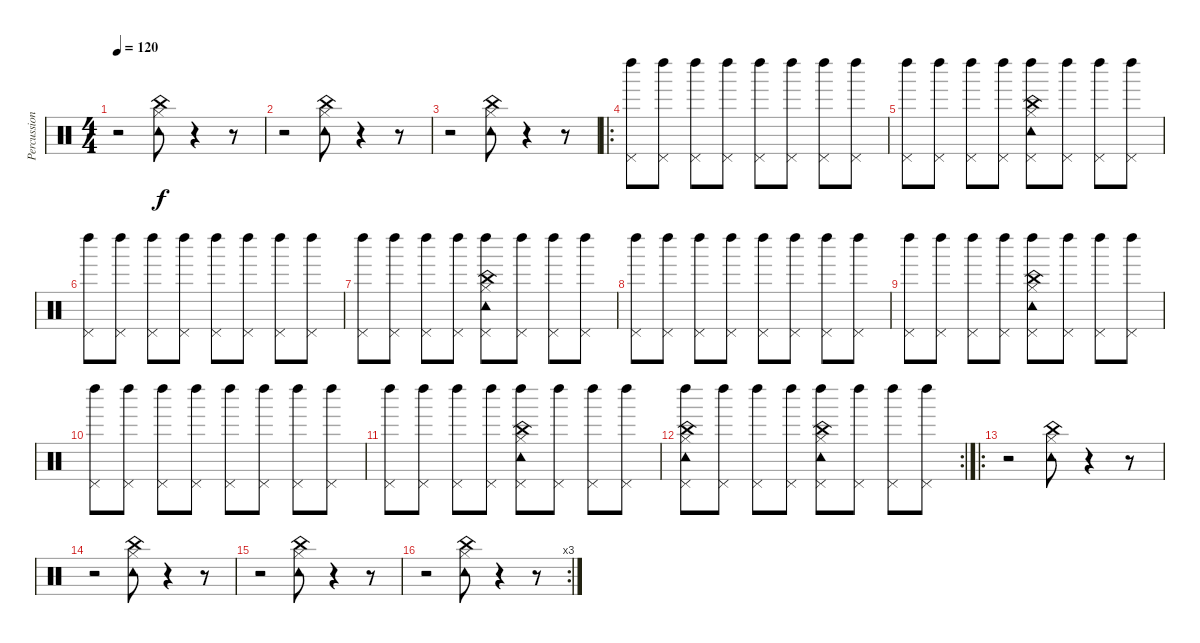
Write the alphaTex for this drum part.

\track ("Percussion " "Percussion") {instrument percussion}
\staff {score}
\articulation defaults
\ts (4 4)
\tempo 120
\clef neutral
\ks c
r.2{dy f} ("Tambourine (hit)" "China (hit)" "Hi-Hat (closed)").8 r.4 r.8 |
r.2 ("Tambourine (hit)" "China (hit)" "Hi-Hat (closed)").8 r.4 r.8 |
r.2 ("Tambourine (hit)" "China (hit)" "Hi-Hat (closed)").8 r.4 r.8 |
\ro
("Left Maraca (hit)" "Pedal Hi-Hat (hit)").8 ("Left Maraca (hit)" "Pedal Hi-Hat (hit)").8 ("Left Maraca (hit)" "Pedal Hi-Hat (hit)").8 ("Left Maraca (hit)" "Pedal Hi-Hat (hit)").8 ("Left Maraca (hit)" "Pedal Hi-Hat (hit)").8 ("Left Maraca (hit)" "Pedal Hi-Hat (hit)").8 ("Left Maraca (hit)" "Pedal Hi-Hat (hit)").8 ("Left Maraca (hit)" "Pedal Hi-Hat (hit)").8 |
("Left Maraca (hit)" "Pedal Hi-Hat (hit)").8 ("Left Maraca (hit)" "Pedal Hi-Hat (hit)").8 ("Left Maraca (hit)" "Pedal Hi-Hat (hit)").8 ("Left Maraca (hit)" "Pedal Hi-Hat (hit)").8 ("Left Maraca (hit)" "Pedal Hi-Hat (hit)" "Tambourine (hit)" "China (hit)" "Hi-Hat (closed)").8 ("Left Maraca (hit)" "Pedal Hi-Hat (hit)").8 ("Left Maraca (hit)" "Pedal Hi-Hat (hit)").8 ("Left Maraca (hit)" "Pedal Hi-Hat (hit)").8 |
("Left Maraca (hit)" "Pedal Hi-Hat (hit)").8 ("Left Maraca (hit)" "Pedal Hi-Hat (hit)").8 ("Left Maraca (hit)" "Pedal Hi-Hat (hit)").8 ("Left Maraca (hit)" "Pedal Hi-Hat (hit)").8 ("Left Maraca (hit)" "Pedal Hi-Hat (hit)").8 ("Left Maraca (hit)" "Pedal Hi-Hat (hit)").8 ("Left Maraca (hit)" "Pedal Hi-Hat (hit)").8 ("Left Maraca (hit)" "Pedal Hi-Hat (hit)").8 |
("Left Maraca (hit)" "Pedal Hi-Hat (hit)").8 ("Left Maraca (hit)" "Pedal Hi-Hat (hit)").8 ("Left Maraca (hit)" "Pedal Hi-Hat (hit)").8 ("Left Maraca (hit)" "Pedal Hi-Hat (hit)").8 ("Left Maraca (hit)" "Pedal Hi-Hat (hit)" "Tambourine (hit)" "China (hit)" "Hi-Hat (closed)").8 ("Left Maraca (hit)" "Pedal Hi-Hat (hit)").8 ("Left Maraca (hit)" "Pedal Hi-Hat (hit)").8 ("Left Maraca (hit)" "Pedal Hi-Hat (hit)").8 |
("Left Maraca (hit)" "Pedal Hi-Hat (hit)").8 ("Left Maraca (hit)" "Pedal Hi-Hat (hit)").8 ("Left Maraca (hit)" "Pedal Hi-Hat (hit)").8 ("Left Maraca (hit)" "Pedal Hi-Hat (hit)").8 ("Left Maraca (hit)" "Pedal Hi-Hat (hit)").8 ("Left Maraca (hit)" "Pedal Hi-Hat (hit)").8 ("Left Maraca (hit)" "Pedal Hi-Hat (hit)").8 ("Left Maraca (hit)" "Pedal Hi-Hat (hit)").8 |
("Left Maraca (hit)" "Pedal Hi-Hat (hit)").8 ("Left Maraca (hit)" "Pedal Hi-Hat (hit)").8 ("Left Maraca (hit)" "Pedal Hi-Hat (hit)").8 ("Left Maraca (hit)" "Pedal Hi-Hat (hit)").8 ("Left Maraca (hit)" "Pedal Hi-Hat (hit)" "Tambourine (hit)" "China (hit)" "Hi-Hat (closed)").8 ("Left Maraca (hit)" "Pedal Hi-Hat (hit)").8 ("Left Maraca (hit)" "Pedal Hi-Hat (hit)").8 ("Left Maraca (hit)" "Pedal Hi-Hat (hit)").8 |
("Left Maraca (hit)" "Pedal Hi-Hat (hit)").8 ("Left Maraca (hit)" "Pedal Hi-Hat (hit)").8 ("Left Maraca (hit)" "Pedal Hi-Hat (hit)").8 ("Left Maraca (hit)" "Pedal Hi-Hat (hit)").8 ("Left Maraca (hit)" "Pedal Hi-Hat (hit)").8 ("Left Maraca (hit)" "Pedal Hi-Hat (hit)").8 ("Left Maraca (hit)" "Pedal Hi-Hat (hit)").8 ("Left Maraca (hit)" "Pedal Hi-Hat (hit)").8 |
("Left Maraca (hit)" "Pedal Hi-Hat (hit)").8 ("Left Maraca (hit)" "Pedal Hi-Hat (hit)").8 ("Left Maraca (hit)" "Pedal Hi-Hat (hit)").8 ("Left Maraca (hit)" "Pedal Hi-Hat (hit)").8 ("Left Maraca (hit)" "Pedal Hi-Hat (hit)" "Tambourine (hit)" "China (hit)" "Hi-Hat (closed)").8 ("Left Maraca (hit)" "Pedal Hi-Hat (hit)").8 ("Left Maraca (hit)" "Pedal Hi-Hat (hit)").8 ("Left Maraca (hit)" "Pedal Hi-Hat (hit)").8 |
\rc 2
("Tambourine (hit)" "Hi-Hat (closed)" "Left Maraca (hit)" "Pedal Hi-Hat (hit)" "China (hit)").8 ("Left Maraca (hit)" "Pedal Hi-Hat (hit)").8 ("Left Maraca (hit)" "Pedal Hi-Hat (hit)").8 ("Left Maraca (hit)" "Pedal Hi-Hat (hit)").8 ("Tambourine (hit)" "Hi-Hat (closed)" "Left Maraca (hit)" "Pedal Hi-Hat (hit)" "China (hit)").8 ("Left Maraca (hit)" "Pedal Hi-Hat (hit)").8 ("Left Maraca (hit)" "Pedal Hi-Hat (hit)").8 ("Left Maraca (hit)" "Pedal Hi-Hat (hit)").8 |
\ro
r.2 ("Tambourine (hit)" "China (hit)" "Hi-Hat (closed)").8 r.4 r.8 |
r.2 ("Tambourine (hit)" "China (hit)" "Hi-Hat (closed)").8 r.4 r.8 |
r.2 ("Tambourine (hit)" "China (hit)" "Hi-Hat (closed)").8 r.4 r.8 |
\rc 3
r.2 ("Tambourine (hit)" "China (hit)" "Hi-Hat (closed)").8 r.4 r.8
